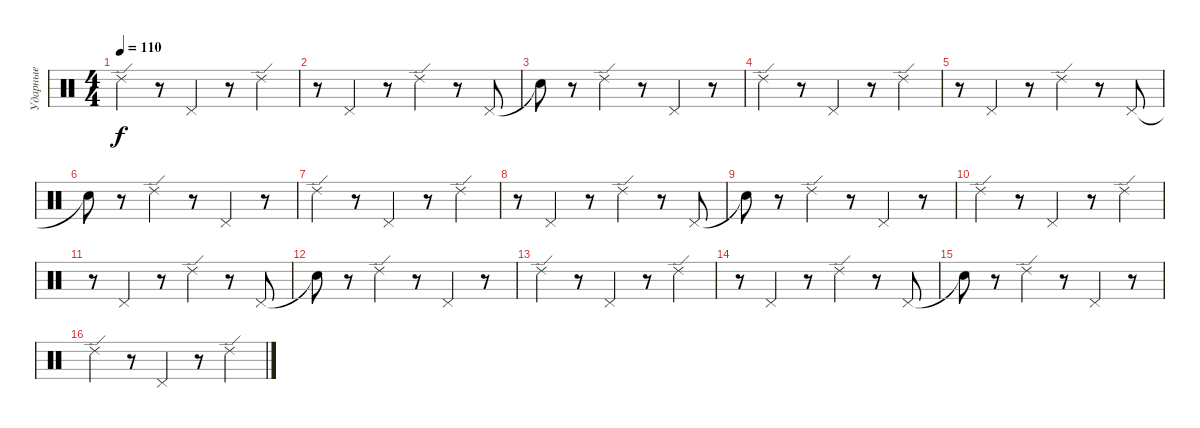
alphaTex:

\track ("Ударные" "Ударные") {instrument percussion}
\staff {score}
\articulation defaults
\ts (4 4)
\tempo 110
\clef neutral
\ks c "Ride (edge) 2".4{dy f}
r.8 "Pedal Hi-Hat (hit)".4 r.8 "Ride (edge) 2".4 |
r.8 "Pedal Hi-Hat (hit)".4 r.8 "Ride (edge) 2".4 r.8 "Pedal Hi-Hat (hit)".8 |
"Snare (hit)"{t}.8 r.8 "Ride (edge) 2".4 r.8 "Pedal Hi-Hat (hit)".4 r.8 |
"Ride (edge) 2".4 r.8 "Pedal Hi-Hat (hit)".4 r.8 "Ride (edge) 2".4 |
r.8 "Pedal Hi-Hat (hit)".4 r.8 "Ride (edge) 2".4 r.8 "Pedal Hi-Hat (hit)".8 |
"Snare (hit)"{t}.8 r.8 "Ride (edge) 2".4 r.8 "Pedal Hi-Hat (hit)".4 r.8 |
"Ride (edge) 2".4 r.8 "Pedal Hi-Hat (hit)".4 r.8 "Ride (edge) 2".4 |
r.8 "Pedal Hi-Hat (hit)".4 r.8 "Ride (edge) 2".4 r.8 "Pedal Hi-Hat (hit)".8 |
"Snare (hit)"{t}.8 r.8 "Ride (edge) 2".4 r.8 "Pedal Hi-Hat (hit)".4 r.8 |
"Ride (edge) 2".4 r.8 "Pedal Hi-Hat (hit)".4 r.8 "Ride (edge) 2".4 |
r.8 "Pedal Hi-Hat (hit)".4 r.8 "Ride (edge) 2".4 r.8 "Pedal Hi-Hat (hit)".8 |
"Snare (hit)"{t}.8 r.8 "Ride (edge) 2".4 r.8 "Pedal Hi-Hat (hit)".4 r.8 |
"Ride (edge) 2".4 r.8 "Pedal Hi-Hat (hit)".4 r.8 "Ride (edge) 2".4 |
r.8 "Pedal Hi-Hat (hit)".4 r.8 "Ride (edge) 2".4 r.8 "Pedal Hi-Hat (hit)".8 |
"Snare (hit)"{t}.8 r.8 "Ride (edge) 2".4 r.8 "Pedal Hi-Hat (hit)".4 r.8 |
"Ride (edge) 2".4 r.8 "Pedal Hi-Hat (hit)".4 r.8 "Ride (edge) 2".4
